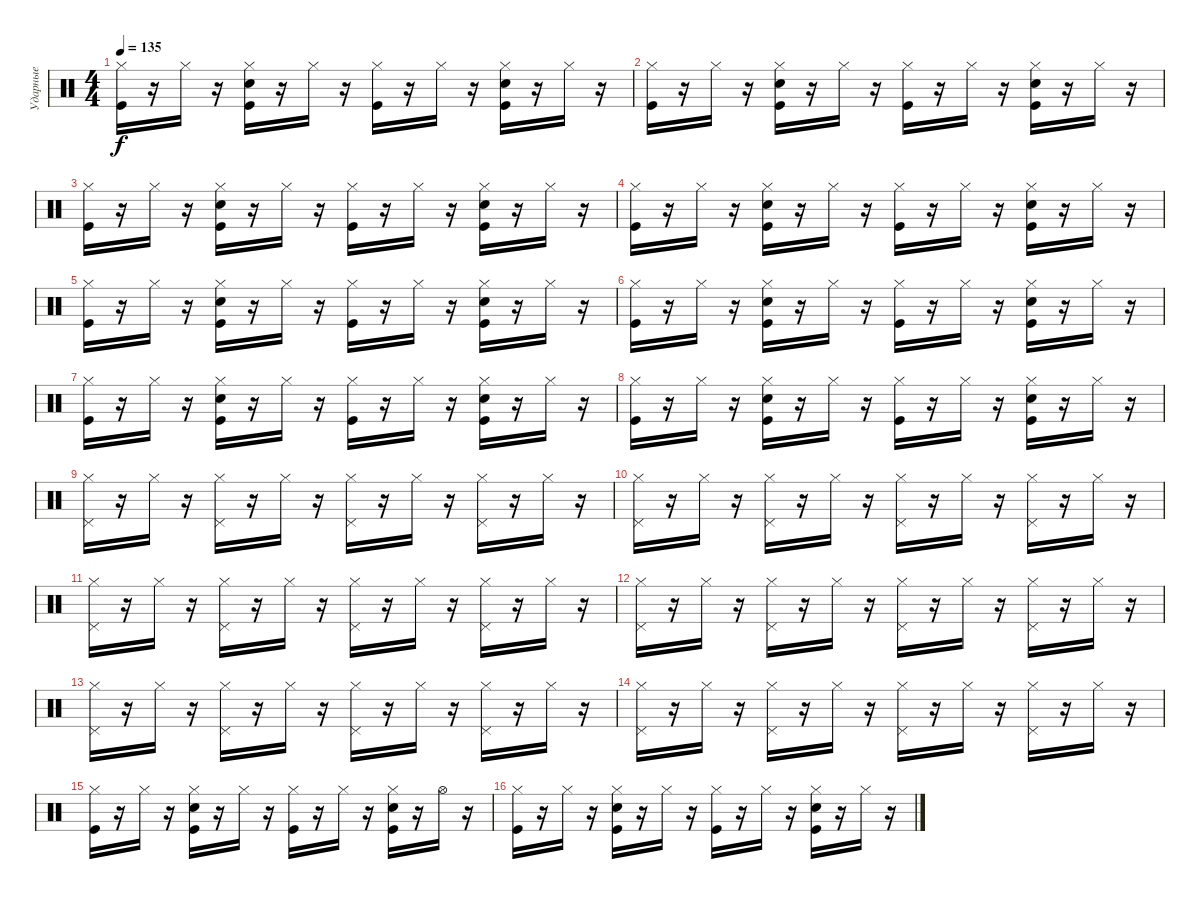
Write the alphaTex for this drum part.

\track ("Ударные" "Ударные") {instrument percussion}
\staff {score}
\articulation defaults
\ts (4 4)
\tempo 135
\clef neutral
\ks c
("Hi-Hat (closed)" "Kick (hit)").16{dy f} r.16 "Hi-Hat (closed)".16 r.16 ("Hi-Hat (closed)" "Kick (hit)" "Snare (hit) 2").16 r.16 "Hi-Hat (closed)".16 r.16 ("Hi-Hat (closed)" "Kick (hit)").16 r.16 "Hi-Hat (closed)".16 r.16 ("Hi-Hat (closed)" "Snare (hit) 2" "Kick (hit)").16 r.16 "Hi-Hat (closed)".16 r.16 |
("Hi-Hat (closed)" "Kick (hit)").16 r.16 "Hi-Hat (closed)".16 r.16 ("Hi-Hat (closed)" "Kick (hit)" "Snare (hit) 2").16 r.16 "Hi-Hat (closed)".16 r.16 ("Hi-Hat (closed)" "Kick (hit)").16 r.16 "Hi-Hat (closed)".16 r.16 ("Hi-Hat (closed)" "Snare (hit) 2" "Kick (hit)").16 r.16 "Hi-Hat (closed)".16 r.16 |
("Hi-Hat (closed)" "Kick (hit)").16 r.16 "Hi-Hat (closed)".16 r.16 ("Hi-Hat (closed)" "Kick (hit)" "Snare (hit) 2").16 r.16 "Hi-Hat (closed)".16 r.16 ("Hi-Hat (closed)" "Kick (hit)").16 r.16 "Hi-Hat (closed)".16 r.16 ("Hi-Hat (closed)" "Snare (hit) 2" "Kick (hit)").16 r.16 "Hi-Hat (closed)".16 r.16 |
("Hi-Hat (closed)" "Kick (hit)").16 r.16 "Hi-Hat (closed)".16 r.16 ("Hi-Hat (closed)" "Kick (hit)" "Snare (hit) 2").16 r.16 "Hi-Hat (closed)".16 r.16 ("Hi-Hat (closed)" "Kick (hit)").16 r.16 "Hi-Hat (closed)".16 r.16 ("Hi-Hat (closed)" "Snare (hit) 2" "Kick (hit)").16 r.16 "Hi-Hat (closed)".16 r.16 |
("Hi-Hat (closed)" "Kick (hit)").16 r.16 "Hi-Hat (closed)".16 r.16 ("Hi-Hat (closed)" "Kick (hit)" "Snare (hit) 2").16 r.16 "Hi-Hat (closed)".16 r.16 ("Hi-Hat (closed)" "Kick (hit)").16 r.16 "Hi-Hat (closed)".16 r.16 ("Hi-Hat (closed)" "Snare (hit) 2" "Kick (hit)").16 r.16 "Hi-Hat (closed)".16 r.16 |
("Hi-Hat (closed)" "Kick (hit)").16 r.16 "Hi-Hat (closed)".16 r.16 ("Hi-Hat (closed)" "Kick (hit)" "Snare (hit) 2").16 r.16 "Hi-Hat (closed)".16 r.16 ("Hi-Hat (closed)" "Kick (hit)").16 r.16 "Hi-Hat (closed)".16 r.16 ("Hi-Hat (closed)" "Snare (hit) 2" "Kick (hit)").16 r.16 "Hi-Hat (closed)".16 r.16 |
("Hi-Hat (closed)" "Kick (hit)").16 r.16 "Hi-Hat (closed)".16 r.16 ("Hi-Hat (closed)" "Kick (hit)" "Snare (hit) 2").16 r.16 "Hi-Hat (closed)".16 r.16 ("Hi-Hat (closed)" "Kick (hit)").16 r.16 "Hi-Hat (closed)".16 r.16 ("Hi-Hat (closed)" "Snare (hit) 2" "Kick (hit)").16 r.16 "Hi-Hat (closed)".16 r.16 |
("Hi-Hat (closed)" "Kick (hit)").16 r.16 "Hi-Hat (closed)".16 r.16 ("Hi-Hat (closed)" "Kick (hit)" "Snare (hit) 2").16 r.16 "Hi-Hat (closed)".16 r.16 ("Hi-Hat (closed)" "Kick (hit)").16 r.16 "Hi-Hat (closed)".16 r.16 ("Hi-Hat (closed)" "Snare (hit) 2" "Kick (hit)").16 r.16 "Hi-Hat (closed)".16 r.16 |
("Hi-Hat (closed)" "Pedal Hi-Hat (hit)").16 r.16 "Hi-Hat (closed)".16 r.16 ("Hi-Hat (closed)" "Pedal Hi-Hat (hit)").16 r.16 "Hi-Hat (closed)".16 r.16 ("Hi-Hat (closed)" "Pedal Hi-Hat (hit)").16 r.16 "Hi-Hat (closed)".16 r.16 ("Hi-Hat (closed)" "Pedal Hi-Hat (hit)").16 r.16 "Hi-Hat (closed)".16 r.16 |
("Hi-Hat (closed)" "Pedal Hi-Hat (hit)").16 r.16 "Hi-Hat (closed)".16 r.16 ("Hi-Hat (closed)" "Pedal Hi-Hat (hit)").16 r.16 "Hi-Hat (closed)".16 r.16 ("Hi-Hat (closed)" "Pedal Hi-Hat (hit)").16 r.16 "Hi-Hat (closed)".16 r.16 ("Hi-Hat (closed)" "Pedal Hi-Hat (hit)").16 r.16 "Hi-Hat (closed)".16 r.16 |
("Hi-Hat (closed)" "Pedal Hi-Hat (hit)").16 r.16 "Hi-Hat (closed)".16 r.16 ("Hi-Hat (closed)" "Pedal Hi-Hat (hit)").16 r.16 "Hi-Hat (closed)".16 r.16 ("Hi-Hat (closed)" "Pedal Hi-Hat (hit)").16 r.16 "Hi-Hat (closed)".16 r.16 ("Hi-Hat (closed)" "Pedal Hi-Hat (hit)").16 r.16 "Hi-Hat (closed)".16 r.16 |
("Hi-Hat (closed)" "Pedal Hi-Hat (hit)").16 r.16 "Hi-Hat (closed)".16 r.16 ("Hi-Hat (closed)" "Pedal Hi-Hat (hit)").16 r.16 "Hi-Hat (closed)".16 r.16 ("Hi-Hat (closed)" "Pedal Hi-Hat (hit)").16 r.16 "Hi-Hat (closed)".16 r.16 ("Hi-Hat (closed)" "Pedal Hi-Hat (hit)").16 r.16 "Hi-Hat (closed)".16 r.16 |
("Hi-Hat (closed)" "Pedal Hi-Hat (hit)").16 r.16 "Hi-Hat (closed)".16 r.16 ("Hi-Hat (closed)" "Pedal Hi-Hat (hit)").16 r.16 "Hi-Hat (closed)".16 r.16 ("Hi-Hat (closed)" "Pedal Hi-Hat (hit)").16 r.16 "Hi-Hat (closed)".16 r.16 ("Hi-Hat (closed)" "Pedal Hi-Hat (hit)").16 r.16 "Hi-Hat (closed)".16 r.16 |
("Hi-Hat (closed)" "Pedal Hi-Hat (hit)").16 r.16 "Hi-Hat (closed)".16 r.16 ("Hi-Hat (closed)" "Pedal Hi-Hat (hit)").16 r.16 "Hi-Hat (closed)".16 r.16 ("Hi-Hat (closed)" "Pedal Hi-Hat (hit)").16 r.16 "Hi-Hat (closed)".16 r.16 ("Hi-Hat (closed)" "Pedal Hi-Hat (hit)").16 r.16 "Hi-Hat (closed)".16 r.16 |
("Hi-Hat (closed)" "Kick (hit)").16 r.16 "Hi-Hat (closed)".16 r.16 ("Hi-Hat (closed)" "Kick (hit)" "Snare (hit) 2").16 r.16 "Hi-Hat (closed)".16 r.16 ("Hi-Hat (closed)" "Kick (hit)").16 r.16 "Hi-Hat (closed)".16 r.16 ("Hi-Hat (closed)" "Snare (hit) 2" "Kick (hit)").16 r.16 "Hi-Hat (open)".16 r.16 |
("Hi-Hat (closed)" "Kick (hit)").16 r.16 "Hi-Hat (closed)".16 r.16 ("Hi-Hat (closed)" "Kick (hit)" "Snare (hit) 2").16 r.16 "Hi-Hat (closed)".16 r.16 ("Hi-Hat (closed)" "Kick (hit)").16 r.16 "Hi-Hat (closed)".16 r.16 ("Hi-Hat (closed)" "Snare (hit) 2" "Kick (hit)").16 r.16 "Hi-Hat (closed)".16 r.16
